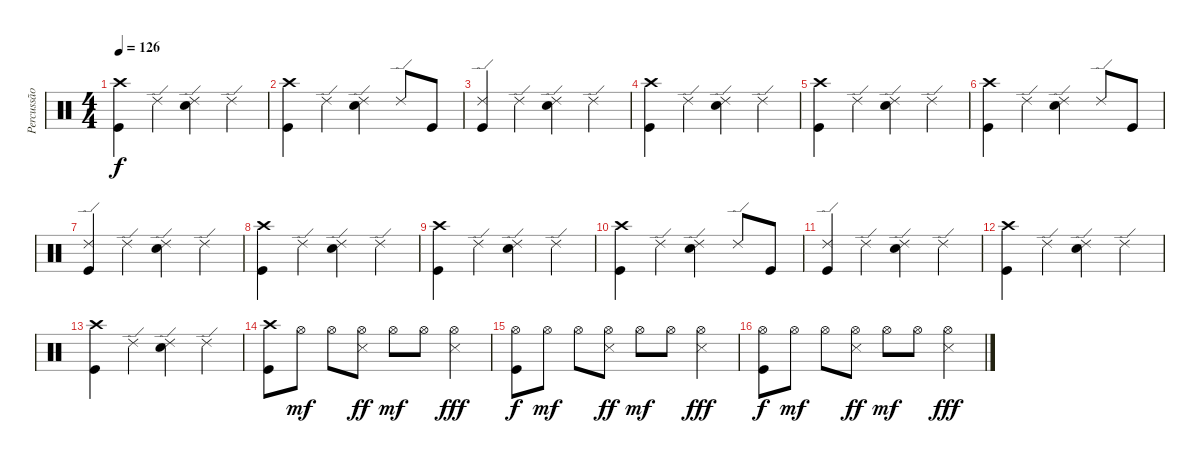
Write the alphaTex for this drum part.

\track ("Percussão" "Percussão") {instrument percussion}
\staff {score}
\articulation defaults
\ts (4 4)
\tempo 126
\clef neutral
\ks c
("Crash high (hit)" "Kick (hit)").4{dy f} "Ride (edge) 2".4 ("Ride (edge) 2" "Electric Snare (hit)").4 "Ride (edge) 2".4 |
("Crash high (hit)" "Kick (hit)").4 "Ride (edge) 2".4 ("Ride (edge) 2" "Electric Snare (hit)").4 "Ride (edge) 2".8 "Kick (hit)".8 |
("Ride (edge) 2" "Kick (hit)").4 "Ride (edge) 2".4 ("Ride (edge) 2" "Electric Snare (hit)").4 "Ride (edge) 2".4 |
("Crash high (hit)" "Kick (hit)").4 "Ride (edge) 2".4 ("Ride (edge) 2" "Electric Snare (hit)").4 "Ride (edge) 2".4 |
("Crash high (hit)" "Kick (hit)").4 "Ride (edge) 2".4 ("Ride (edge) 2" "Electric Snare (hit)").4 "Ride (edge) 2".4 |
("Crash high (hit)" "Kick (hit)").4 "Ride (edge) 2".4 ("Ride (edge) 2" "Electric Snare (hit)").4 "Ride (edge) 2".8 "Kick (hit)".8 |
("Ride (edge) 2" "Kick (hit)").4 "Ride (edge) 2".4 ("Ride (edge) 2" "Electric Snare (hit)").4 "Ride (edge) 2".4 |
("Crash high (hit)" "Kick (hit)").4 "Ride (edge) 2".4 ("Ride (edge) 2" "Electric Snare (hit)").4 "Ride (edge) 2".4 |
("Crash high (hit)" "Kick (hit)").4 "Ride (edge) 2".4 ("Ride (edge) 2" "Electric Snare (hit)").4 "Ride (edge) 2".4 |
("Crash high (hit)" "Kick (hit)").4 "Ride (edge) 2".4 ("Ride (edge) 2" "Electric Snare (hit)").4 "Ride (edge) 2".8 "Kick (hit)".8 |
("Ride (edge) 2" "Kick (hit)").4 "Ride (edge) 2".4 ("Ride (edge) 2" "Electric Snare (hit)").4 "Ride (edge) 2".4 |
("Crash high (hit)" "Kick (hit)").4 "Ride (edge) 2".4 ("Ride (edge) 2" "Electric Snare (hit)").4 "Ride (edge) 2".4 |
("Crash high (hit)" "Kick (hit)").4 "Ride (edge) 2".4 ("Ride (edge) 2" "Electric Snare (hit)").4 "Ride (edge) 2".4 |
("Crash high (hit)" "Kick (hit)").8 "Hi-Hat (open)".8{dy mf} "Hi-Hat (open)".8 ("Hi-Hat (open)" "Snare (side stick) 3").8{dy ff} "Hi-Hat (open)".8{dy mf} "Hi-Hat (open)".8 ("Hi-Hat (open)" "Snare (side stick) 3").4{dy fff} |
("Hi-Hat (open)" "Kick (hit)").8{dy f} "Hi-Hat (open)".8{dy mf} "Hi-Hat (open)".8 ("Hi-Hat (open)" "Snare (side stick) 3").8{dy ff} "Hi-Hat (open)".8{dy mf} "Hi-Hat (open)".8 ("Hi-Hat (open)" "Snare (side stick) 3").4{dy fff} |
("Hi-Hat (open)" "Kick (hit)").8{dy f} "Hi-Hat (open)".8{dy mf} "Hi-Hat (open)".8 ("Hi-Hat (open)" "Snare (side stick) 3").8{dy ff} "Hi-Hat (open)".8{dy mf} "Hi-Hat (open)".8 ("Hi-Hat (open)" "Snare (side stick) 3").4{dy fff}
